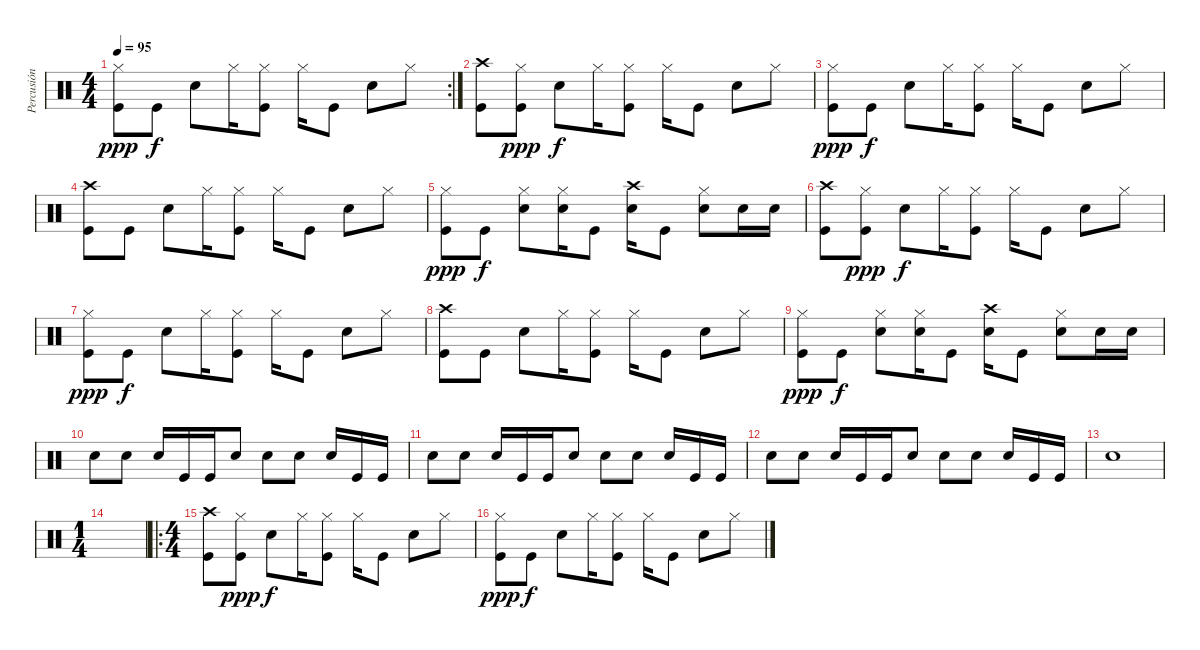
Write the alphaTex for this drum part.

\track ("Percusión" "Percusión") {instrument percussion}
\staff {score}
\articulation defaults
\rc 2
\ts (4 4)
\tempo 95
\clef neutral
\ks c
("Kick (hit)" "Hi-Hat (closed)").8{dy ppp} "Kick (hit)".8{dy f} "Snare (hit) 2".8 "Hi-Hat (closed)".16 ("Kick (hit)" "Hi-Hat (closed)").8 "Hi-Hat (closed)".16 "Kick (hit)".8 "Snare (hit) 2".8 "Hi-Hat (closed)".8 |
("Kick (hit)" "Crash high (hit)").8 ("Kick (hit)" "Hi-Hat (closed)").8{dy ppp} "Snare (hit) 2".8{dy f} "Hi-Hat (closed)".16 ("Kick (hit)" "Hi-Hat (closed)").8 "Hi-Hat (closed)".16 "Kick (hit)".8 "Snare (hit) 2".8 "Hi-Hat (closed)".8 |
("Kick (hit)" "Hi-Hat (closed)").8{dy ppp} "Kick (hit)".8{dy f} "Snare (hit) 2".8 "Hi-Hat (closed)".16 ("Kick (hit)" "Hi-Hat (closed)").8 "Hi-Hat (closed)".16 "Kick (hit)".8 "Snare (hit) 2".8 "Hi-Hat (closed)".8 |
("Kick (hit)" "Crash high (hit)").8 "Kick (hit)".8 "Snare (hit) 2".8 "Hi-Hat (closed)".16 ("Kick (hit)" "Hi-Hat (closed)").8 "Hi-Hat (closed)".16 "Kick (hit)".8 "Snare (hit) 2".8 "Hi-Hat (closed)".8 |
("Kick (hit)" "Hi-Hat (closed)").8{dy ppp} "Kick (hit)".8{dy f} ("Snare (hit) 2" "Hi-Hat (closed)").8 ("Snare (hit) 2" "Hi-Hat (closed)").16 "Kick (hit)".8 ("Snare (hit) 2" "Crash high (hit)").16 "Kick (hit)".8 ("Snare (hit) 2" "Hi-Hat (closed)").8 "Snare (hit) 2".16 "Snare (hit) 2".16 |
("Kick (hit)" "Crash high (hit)").8 ("Kick (hit)" "Hi-Hat (closed)").8{dy ppp} "Snare (hit) 2".8{dy f} "Hi-Hat (closed)".16 ("Kick (hit)" "Hi-Hat (closed)").8 "Hi-Hat (closed)".16 "Kick (hit)".8 "Snare (hit) 2".8 "Hi-Hat (closed)".8 |
("Kick (hit)" "Hi-Hat (closed)").8{dy ppp} "Kick (hit)".8{dy f} "Snare (hit) 2".8 "Hi-Hat (closed)".16 ("Kick (hit)" "Hi-Hat (closed)").8 "Hi-Hat (closed)".16 "Kick (hit)".8 "Snare (hit) 2".8 "Hi-Hat (closed)".8 |
("Kick (hit)" "Crash high (hit)").8 "Kick (hit)".8 "Snare (hit) 2".8 "Hi-Hat (closed)".16 ("Kick (hit)" "Hi-Hat (closed)").8 "Hi-Hat (closed)".16 "Kick (hit)".8 "Snare (hit) 2".8 "Hi-Hat (closed)".8 |
("Kick (hit)" "Hi-Hat (closed)").8{dy ppp} "Kick (hit)".8{dy f} ("Snare (hit) 2" "Hi-Hat (closed)").8 ("Snare (hit) 2" "Hi-Hat (closed)").16 "Kick (hit)".8 ("Snare (hit) 2" "Crash high (hit)").16 "Kick (hit)".8 ("Snare (hit) 2" "Hi-Hat (closed)").8 "Snare (hit) 2".16 "Snare (hit) 2".16 |
"Snare (hit) 2".8{volume 4} "Snare (hit) 2".8{volume 16} "Snare (hit) 2".16 "Kick (hit)".16 "Kick (hit)".16 "Snare (hit) 2".8 "Snare (hit) 2".8 "Snare (hit) 2".8 "Snare (hit) 2".16 "Kick (hit)".16 "Kick (hit)".16 |
"Snare (hit) 2".8 "Snare (hit) 2".8 "Snare (hit) 2".16 "Kick (hit)".16 "Kick (hit)".16 "Snare (hit) 2".8 "Snare (hit) 2".8 "Snare (hit) 2".8 "Snare (hit) 2".16 "Kick (hit)".16 "Kick (hit)".16 |
"Snare (hit) 2".8 "Snare (hit) 2".8 "Snare (hit) 2".16 "Kick (hit)".16 "Kick (hit)".16 "Snare (hit) 2".8 "Snare (hit) 2".8 "Snare (hit) 2".8 "Snare (hit) 2".16 "Kick (hit)".16 "Kick (hit)".16 |
"Snare (hit) 2".1 |
\ts (1 4)
|
\ro
\ts (4 4)
("Kick (hit)" "Crash high (hit)").8 ("Kick (hit)" "Hi-Hat (closed)").8{dy ppp} "Snare (hit) 2".8{dy f} "Hi-Hat (closed)".16 ("Kick (hit)" "Hi-Hat (closed)").8 "Hi-Hat (closed)".16 "Kick (hit)".8 "Snare (hit) 2".8 "Hi-Hat (closed)".8 |
("Kick (hit)" "Hi-Hat (closed)").8{dy ppp} "Kick (hit)".8{dy f} "Snare (hit) 2".8 "Hi-Hat (closed)".16 ("Kick (hit)" "Hi-Hat (closed)").8 "Hi-Hat (closed)".16 "Kick (hit)".8 "Snare (hit) 2".8 "Hi-Hat (closed)".8
